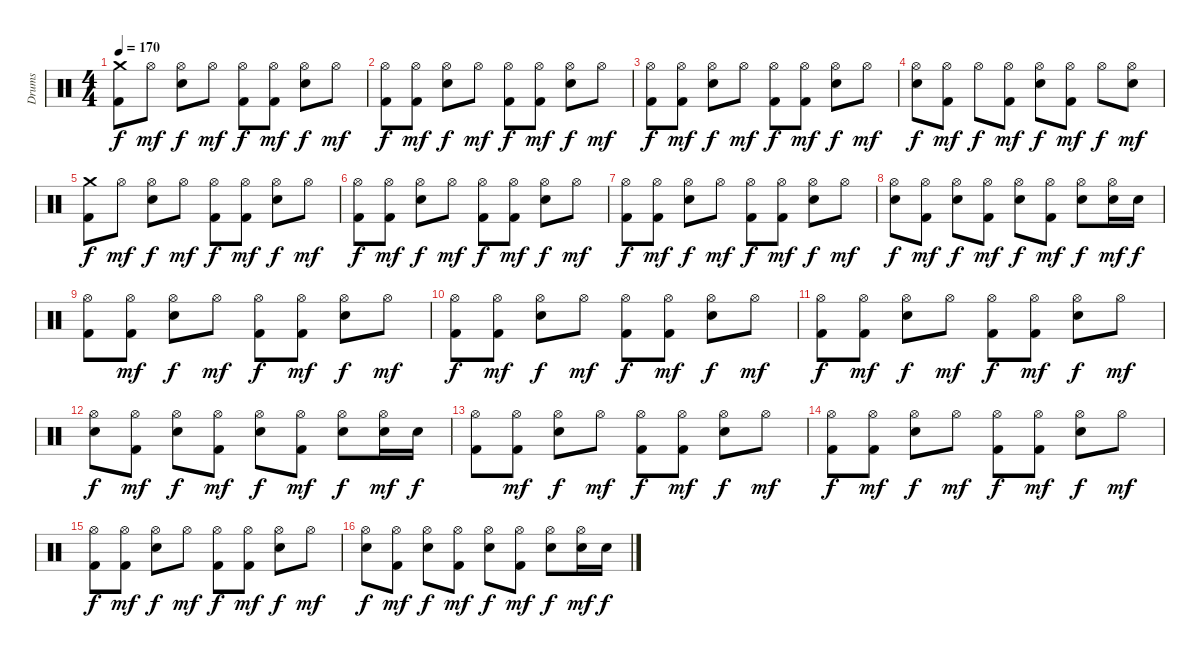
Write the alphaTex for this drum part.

\track ("Drums" "Drums") {instrument percussion}
\staff {score}
\articulation defaults
\ts (4 4)
\tempo 170
\clef neutral
\ks c
("Crash medium (hit)" "Kick (hit) 2").8{dy f} "Hi-Hat (open)".8{dy mf} ("Hi-Hat (open)" "Electric Snare (hit)").8{dy f} "Hi-Hat (open)".8{dy mf} ("Hi-Hat (open)" "Kick (hit) 2").8{dy f} ("Hi-Hat (open)" "Kick (hit) 2").8{dy mf} ("Hi-Hat (open)" "Electric Snare (hit)").8{dy f} "Hi-Hat (open)".8{dy mf} |
("Hi-Hat (open)" "Kick (hit) 2").8{dy f} ("Hi-Hat (open)" "Kick (hit) 2").8{dy mf} ("Hi-Hat (open)" "Electric Snare (hit)").8{dy f} "Hi-Hat (open)".8{dy mf} ("Hi-Hat (open)" "Kick (hit) 2").8{dy f} ("Hi-Hat (open)" "Kick (hit) 2").8{dy mf} ("Hi-Hat (open)" "Electric Snare (hit)").8{dy f} "Hi-Hat (open)".8{dy mf} |
("Hi-Hat (open)" "Kick (hit) 2").8{dy f} ("Hi-Hat (open)" "Kick (hit) 2").8{dy mf} ("Hi-Hat (open)" "Electric Snare (hit)").8{dy f} "Hi-Hat (open)".8{dy mf} ("Hi-Hat (open)" "Kick (hit) 2").8{dy f} ("Hi-Hat (open)" "Kick (hit) 2").8{dy mf} ("Hi-Hat (open)" "Electric Snare (hit)").8{dy f} "Hi-Hat (open)".8{dy mf} |
("Hi-Hat (open)" "Electric Snare (hit)").8{dy f} ("Hi-Hat (open)" "Kick (hit) 2").8{dy mf} "Hi-Hat (open)".8{dy f} ("Hi-Hat (open)" "Kick (hit) 2").8{dy mf} ("Hi-Hat (open)" "Electric Snare (hit)").8{dy f} ("Hi-Hat (open)" "Kick (hit) 2").8{dy mf} "Hi-Hat (open)".8{dy f} ("Hi-Hat (open)" "Electric Snare (hit)").8{dy mf} |
("Crash medium (hit)" "Kick (hit) 2").8{dy f} "Hi-Hat (open)".8{dy mf} ("Hi-Hat (open)" "Electric Snare (hit)").8{dy f} "Hi-Hat (open)".8{dy mf} ("Hi-Hat (open)" "Kick (hit) 2").8{dy f} ("Hi-Hat (open)" "Kick (hit) 2").8{dy mf} ("Hi-Hat (open)" "Electric Snare (hit)").8{dy f} "Hi-Hat (open)".8{dy mf} |
("Hi-Hat (open)" "Kick (hit) 2").8{dy f} ("Hi-Hat (open)" "Kick (hit) 2").8{dy mf} ("Hi-Hat (open)" "Electric Snare (hit)").8{dy f} "Hi-Hat (open)".8{dy mf} ("Hi-Hat (open)" "Kick (hit) 2").8{dy f} ("Hi-Hat (open)" "Kick (hit) 2").8{dy mf} ("Hi-Hat (open)" "Electric Snare (hit)").8{dy f} "Hi-Hat (open)".8{dy mf} |
("Hi-Hat (open)" "Kick (hit) 2").8{dy f} ("Hi-Hat (open)" "Kick (hit) 2").8{dy mf} ("Hi-Hat (open)" "Electric Snare (hit)").8{dy f} "Hi-Hat (open)".8{dy mf} ("Hi-Hat (open)" "Kick (hit) 2").8{dy f} ("Hi-Hat (open)" "Kick (hit) 2").8{dy mf} ("Hi-Hat (open)" "Electric Snare (hit)").8{dy f} "Hi-Hat (open)".8{dy mf} |
("Hi-Hat (open)" "Electric Snare (hit)").8{dy f} ("Hi-Hat (open)" "Kick (hit) 2").8{dy mf} ("Hi-Hat (open)" "Electric Snare (hit)").8{dy f} ("Hi-Hat (open)" "Kick (hit) 2").8{dy mf} ("Hi-Hat (open)" "Electric Snare (hit)").8{dy f} ("Hi-Hat (open)" "Kick (hit) 2").8{dy mf} ("Hi-Hat (open)" "Electric Snare (hit)").8{dy f} ("Hi-Hat (open)" "Electric Snare (hit)").16{dy mf} "Electric Snare (hit)".16{dy f} |
("Hi-Hat (open)" "Kick (hit) 2").8 ("Hi-Hat (open)" "Kick (hit) 2").8{dy mf} ("Hi-Hat (open)" "Electric Snare (hit)").8{dy f} "Hi-Hat (open)".8{dy mf} ("Hi-Hat (open)" "Kick (hit) 2").8{dy f} ("Hi-Hat (open)" "Kick (hit) 2").8{dy mf} ("Hi-Hat (open)" "Electric Snare (hit)").8{dy f} "Hi-Hat (open)".8{dy mf} |
("Hi-Hat (open)" "Kick (hit) 2").8{dy f} ("Hi-Hat (open)" "Kick (hit) 2").8{dy mf} ("Hi-Hat (open)" "Electric Snare (hit)").8{dy f} "Hi-Hat (open)".8{dy mf} ("Hi-Hat (open)" "Kick (hit) 2").8{dy f} ("Hi-Hat (open)" "Kick (hit) 2").8{dy mf} ("Hi-Hat (open)" "Electric Snare (hit)").8{dy f} "Hi-Hat (open)".8{dy mf} |
("Hi-Hat (open)" "Kick (hit) 2").8{dy f} ("Hi-Hat (open)" "Kick (hit) 2").8{dy mf} ("Hi-Hat (open)" "Electric Snare (hit)").8{dy f} "Hi-Hat (open)".8{dy mf} ("Hi-Hat (open)" "Kick (hit) 2").8{dy f} ("Hi-Hat (open)" "Kick (hit) 2").8{dy mf} ("Hi-Hat (open)" "Electric Snare (hit)").8{dy f} "Hi-Hat (open)".8{dy mf} |
("Hi-Hat (open)" "Electric Snare (hit)").8{dy f} ("Hi-Hat (open)" "Kick (hit) 2").8{dy mf} ("Hi-Hat (open)" "Electric Snare (hit)").8{dy f} ("Hi-Hat (open)" "Kick (hit) 2").8{dy mf} ("Hi-Hat (open)" "Electric Snare (hit)").8{dy f} ("Hi-Hat (open)" "Kick (hit) 2").8{dy mf} ("Hi-Hat (open)" "Electric Snare (hit)").8{dy f} ("Hi-Hat (open)" "Electric Snare (hit)").16{dy mf} "Electric Snare (hit)".16{dy f} |
("Hi-Hat (open)" "Kick (hit) 2").8 ("Hi-Hat (open)" "Kick (hit) 2").8{dy mf} ("Hi-Hat (open)" "Electric Snare (hit)").8{dy f} "Hi-Hat (open)".8{dy mf} ("Hi-Hat (open)" "Kick (hit) 2").8{dy f} ("Hi-Hat (open)" "Kick (hit) 2").8{dy mf} ("Hi-Hat (open)" "Electric Snare (hit)").8{dy f} "Hi-Hat (open)".8{dy mf} |
("Hi-Hat (open)" "Kick (hit) 2").8{dy f} ("Hi-Hat (open)" "Kick (hit) 2").8{dy mf} ("Hi-Hat (open)" "Electric Snare (hit)").8{dy f} "Hi-Hat (open)".8{dy mf} ("Hi-Hat (open)" "Kick (hit) 2").8{dy f} ("Hi-Hat (open)" "Kick (hit) 2").8{dy mf} ("Hi-Hat (open)" "Electric Snare (hit)").8{dy f} "Hi-Hat (open)".8{dy mf} |
("Hi-Hat (open)" "Kick (hit) 2").8{dy f} ("Hi-Hat (open)" "Kick (hit) 2").8{dy mf} ("Hi-Hat (open)" "Electric Snare (hit)").8{dy f} "Hi-Hat (open)".8{dy mf} ("Hi-Hat (open)" "Kick (hit) 2").8{dy f} ("Hi-Hat (open)" "Kick (hit) 2").8{dy mf} ("Hi-Hat (open)" "Electric Snare (hit)").8{dy f} "Hi-Hat (open)".8{dy mf} |
("Hi-Hat (open)" "Electric Snare (hit)").8{dy f} ("Hi-Hat (open)" "Kick (hit) 2").8{dy mf} ("Hi-Hat (open)" "Electric Snare (hit)").8{dy f} ("Hi-Hat (open)" "Kick (hit) 2").8{dy mf} ("Hi-Hat (open)" "Electric Snare (hit)").8{dy f} ("Hi-Hat (open)" "Kick (hit) 2").8{dy mf} ("Hi-Hat (open)" "Electric Snare (hit)").8{dy f} ("Hi-Hat (open)" "Electric Snare (hit)").16{dy mf} "Electric Snare (hit)".16{dy f}
